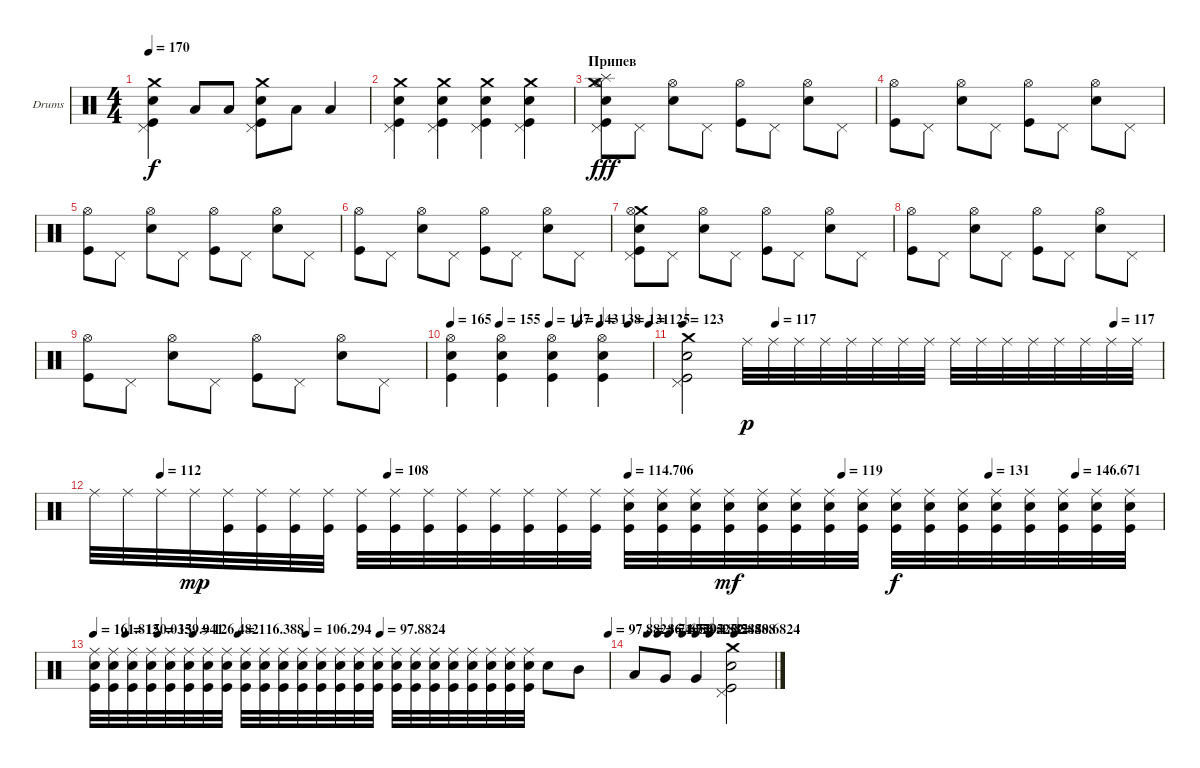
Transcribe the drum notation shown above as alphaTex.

\defaultSystemsLayout 4
\bracketExtendMode groupsimilarinstruments
\firstSystemTrackNameOrientation horizontal
\otherSystemsTrackNameOrientation horizontal
\track ("Е. Кулаков" "Drums") {instrument percussion}
\staff {score}
\articulation defaults
\ts (4 4)
\tempo 170
\clef neutral
\ks c
("Pedal Hi-Hat (hit)" "Kick (hit)" "Snare (hit) 2" "Crash medium (hit)").4{dy f} "Low Tom (hit)".8 "Low Tom (hit)".8 ("Kick (hit)" "Crash medium (hit)" "Snare (hit) 2" "Pedal Hi-Hat (hit)").8 "Low Tom (hit)".8 "Low Tom (hit)".4 |
("Pedal Hi-Hat (hit)" "Kick (hit)" "Snare (hit) 2" "Crash medium (hit)").4 ("Pedal Hi-Hat (hit)" "Kick (hit)" "Snare (hit) 2" "Crash medium (hit)").4 ("Pedal Hi-Hat (hit)" "Kick (hit)" "Snare (hit) 2" "Crash medium (hit)").4 ("Pedal Hi-Hat (hit)" "Kick (hit)" "Snare (hit) 2" "Crash medium (hit)").4 |
\section ("" "Припев")
("Kick (hit)" "Snare (hit) 2" "Crash medium (hit)" "Pedal Hi-Hat (hit)" "Hi-Hat (open)" "Splash (hit)").8{dy fff} "Pedal Hi-Hat (hit)".8 ("Snare (hit) 2" "Hi-Hat (open)").8 "Pedal Hi-Hat (hit)".8 ("Kick (hit)" "Hi-Hat (open)").8 "Pedal Hi-Hat (hit)".8 ("Snare (hit) 2" "Hi-Hat (open)").8 "Pedal Hi-Hat (hit)".8 |
("Kick (hit)" "Hi-Hat (open)").8 "Pedal Hi-Hat (hit)".8 ("Snare (hit) 2" "Hi-Hat (open)").8 "Pedal Hi-Hat (hit)".8 ("Kick (hit)" "Hi-Hat (open)").8 "Pedal Hi-Hat (hit)".8 ("Snare (hit) 2" "Hi-Hat (open)").8 "Pedal Hi-Hat (hit)".8 |
("Kick (hit)" "Hi-Hat (open)").8 "Pedal Hi-Hat (hit)".8 ("Snare (hit) 2" "Hi-Hat (open)").8 "Pedal Hi-Hat (hit)".8 ("Kick (hit)" "Hi-Hat (open)").8 "Pedal Hi-Hat (hit)".8 ("Snare (hit) 2" "Hi-Hat (open)").8 "Pedal Hi-Hat (hit)".8 |
("Kick (hit)" "Hi-Hat (open)").8 "Pedal Hi-Hat (hit)".8 ("Snare (hit) 2" "Hi-Hat (open)").8 "Pedal Hi-Hat (hit)".8 ("Kick (hit)" "Hi-Hat (open)").8 "Pedal Hi-Hat (hit)".8 ("Snare (hit) 2" "Hi-Hat (open)").8 "Pedal Hi-Hat (hit)".8 |
("Kick (hit)" "Snare (hit) 2" "Crash medium (hit)" "Pedal Hi-Hat (hit)" "Hi-Hat (open)").8 "Pedal Hi-Hat (hit)".8 ("Snare (hit) 2" "Hi-Hat (open)").8 "Pedal Hi-Hat (hit)".8 ("Kick (hit)" "Hi-Hat (open)").8 "Pedal Hi-Hat (hit)".8 ("Snare (hit) 2" "Hi-Hat (open)").8 "Pedal Hi-Hat (hit)".8 |
("Kick (hit)" "Hi-Hat (open)").8 "Pedal Hi-Hat (hit)".8 ("Snare (hit) 2" "Hi-Hat (open)").8 "Pedal Hi-Hat (hit)".8 ("Kick (hit)" "Hi-Hat (open)").8 "Pedal Hi-Hat (hit)".8 ("Snare (hit) 2" "Hi-Hat (open)").8 "Pedal Hi-Hat (hit)".8 |
("Kick (hit)" "Hi-Hat (open)").8 "Pedal Hi-Hat (hit)".8 ("Snare (hit) 2" "Hi-Hat (open)").8 "Pedal Hi-Hat (hit)".8 ("Kick (hit)" "Hi-Hat (open)").8 "Pedal Hi-Hat (hit)".8 ("Snare (hit) 2" "Hi-Hat (open)").8 "Pedal Hi-Hat (hit)".8 |
\tempo 165
\tempo (155 0.242991)
\tempo (147 0.490654)
\tempo (143 0.630841)
\tempo (138 0.742991)
\tempo (131 0.883178)
\tempo (125 0.985981)
("Kick (hit)" "Hi-Hat (open)" "Snare (hit) 2").4 ("Snare (hit) 2" "Hi-Hat (open)" "Kick (hit)").4 ("Kick (hit)" "Hi-Hat (open)" "Snare (hit) 2").4 ("Snare (hit) 2" "Hi-Hat (open)" "Kick (hit)").4 |
\tempo 123
\tempo (117 0.19375)
\tempo (117 0.9)
("Pedal Hi-Hat (hit)" "Kick (hit)" "Snare (hit) 2" "Crash medium (hit)").2 "Ride (middle)".32{dy p} "Ride (middle)".32 "Ride (middle)".32 "Ride (middle)".32 "Ride (middle)".32 "Ride (middle)".32 "Ride (middle)".32 "Ride (middle)".32 "Ride (middle)".32 "Ride (middle)".32 "Ride (middle)".32 "Ride (middle)".32 "Ride (middle)".32 "Ride (middle)".32 "Ride (middle)".32 "Ride (middle)".32 |
\tempo (112 0.0625)
\tempo (108 0.275)
\tempo (114.706 0.5)
\tempo (119 0.7)
\tempo (131 0.8375)
\tempo (146.671 0.91875)
"Ride (middle)".32 "Ride (middle)".32 "Ride (middle)".32 "Ride (middle)".32{dy mp} ("Ride (middle)" "Kick (hit)").32 ("Ride (middle)" "Kick (hit)").32 ("Ride (middle)" "Kick (hit)").32 ("Ride (middle)" "Kick (hit)").32 ("Ride (middle)" "Kick (hit)").32 ("Ride (middle)" "Kick (hit)").32 ("Ride (middle)" "Kick (hit)").32 ("Ride (middle)" "Kick (hit)").32 ("Ride (middle)" "Kick (hit)").32 ("Ride (middle)" "Kick (hit)").32 ("Ride (middle)" "Kick (hit)").32 ("Ride (middle)" "Kick (hit)").32 ("Ride (middle)" "Kick (hit)" "Snare (hit) 2").32 ("Ride (middle)" "Kick (hit)" "Snare (hit) 2").32 ("Ride (middle)" "Kick (hit)" "Snare (hit) 2").32 ("Ride (middle)" "Kick (hit)" "Snare (hit) 2").32{dy mf} ("Ride (middle)" "Kick (hit)" "Snare (hit) 2").32 ("Ride (middle)" "Kick (hit)" "Snare (hit) 2").32 ("Ride (middle)" "Kick (hit)" "Snare (hit) 2").32 ("Ride (middle)" "Kick (hit)" "Snare (hit) 2").32 ("Ride (middle)" "Kick (hit)" "Snare (hit) 2").32{dy f} ("Ride (middle)" "Kick (hit)" "Snare (hit) 2").32 ("Ride (middle)" "Kick (hit)" "Snare (hit) 2").32 ("Ride (middle)" "Kick (hit)" "Snare (hit) 2").32 ("Ride (middle)" "Kick (hit)" "Snare (hit) 2").32 ("Ride (middle)" "Kick (hit)" "Snare (hit) 2").32 ("Ride (middle)" "Kick (hit)" "Snare (hit) 2").32 ("Ride (middle)" "Kick (hit)" "Snare (hit) 2").32 |
\tempo
161.812
\tempo (150.035 0.0625)
\tempo (139.941 0.125)
\tempo (126.482 0.19375)
\tempo (116.388 0.28125)
\tempo (106.294 0.4125)
\tempo (97.8824 0.55625)
\tempo (97.8824 1)
("Ride (middle)" "Kick (hit)" "Snare (hit) 2").32 ("Ride (middle)" "Kick (hit)" "Snare (hit) 2").32 ("Ride (middle)" "Kick (hit)" "Snare (hit) 2").32 ("Ride (middle)" "Kick (hit)" "Snare (hit) 2").32 ("Ride (middle)" "Kick (hit)" "Snare (hit) 2").32 ("Ride (middle)" "Kick (hit)" "Snare (hit) 2").32 ("Ride (middle)" "Kick (hit)" "Snare (hit) 2").32 ("Ride (middle)" "Kick (hit)" "Snare (hit) 2").32 ("Ride (middle)" "Kick (hit)" "Snare (hit) 2").32 ("Ride (middle)" "Kick (hit)" "Snare (hit) 2").32 ("Ride (middle)" "Kick (hit)" "Snare (hit) 2").32 ("Ride (middle)" "Kick (hit)" "Snare (hit) 2").32 ("Ride (middle)" "Kick (hit)" "Snare (hit) 2").32 ("Ride (middle)" "Kick (hit)" "Snare (hit) 2").32 ("Ride (middle)" "Kick (hit)" "Snare (hit) 2").32 ("Ride (middle)" "Kick (hit)" "Snare (hit) 2").32 ("Ride (middle)" "Kick (hit)" "Snare (hit) 2").32 ("Ride (middle)" "Kick (hit)" "Snare (hit) 2").32 ("Ride (middle)" "Kick (hit)" "Snare (hit) 2").32 ("Ride (middle)" "Kick (hit)" "Snare (hit) 2").32 ("Ride (middle)" "Kick (hit)" "Snare (hit) 2").32 ("Ride (middle)" "Kick (hit)" "Snare (hit) 2").32 ("Ride (middle)" "Kick (hit)" "Snare (hit) 2").32 ("Ride (middle)" "Kick (hit)" "Snare (hit) 2").32 "Snare (hit) 2".8 "Mid Tom (hit)".8 |
\tempo (86.1059 0.1)
\tempo (74.3294 0.175)
\tempo (67.6 0.25)
\tempo (59.1882 0.35)
\tempo (52.4588 0.44375)
\tempo (52.4588 0.54375)
\tempo (40.6824 0.71875)
"Low Tom (hit)".8 "Very Low Tom (hit)".8 "Very Low Tom (hit)".4 ("Kick (hit)" "Snare (hit) 2" "Pedal Hi-Hat (hit)" "Crash medium (hit)").2
